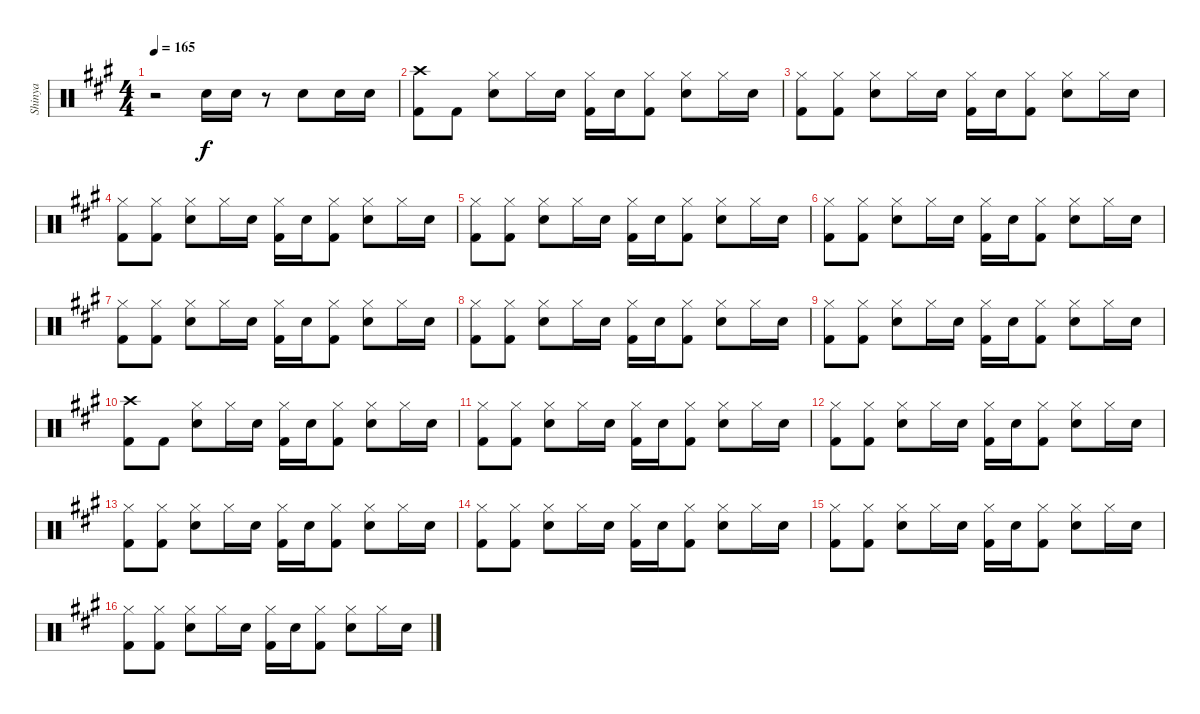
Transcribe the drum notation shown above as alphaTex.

\track ("Shinya" "Shinya") {instrument percussion}
\staff {score}
\articulation defaults
\ts (4 4)
\tempo 165
\clef neutral
\ks a
r.2{dy f} "Snare (hit) 2".16 "Snare (hit) 2".16 r.8 "Snare (hit) 2".8 "Snare (hit) 2".16 "Snare (hit) 2".16 |
("Crash high (hit)" "Kick (hit) 2").8 "Kick (hit) 2".8 ("Hi-Hat (closed)" "Snare (hit) 2").8 "Hi-Hat (closed)".16 "Snare (hit) 2".16 ("Hi-Hat (closed)" "Kick (hit) 2").16 "Snare (hit) 2".16 ("Hi-Hat (closed)" "Kick (hit) 2").8 ("Hi-Hat (closed)" "Snare (hit) 2").8 "Hi-Hat (closed)".16 "Snare (hit) 2".16 |
("Hi-Hat (closed)" "Kick (hit) 2").8 ("Hi-Hat (closed)" "Kick (hit) 2").8 ("Hi-Hat (closed)" "Snare (hit) 2").8 "Hi-Hat (closed)".16 "Snare (hit) 2".16 ("Hi-Hat (closed)" "Kick (hit) 2").16 "Snare (hit) 2".16 ("Hi-Hat (closed)" "Kick (hit) 2").8 ("Hi-Hat (closed)" "Snare (hit) 2").8 "Hi-Hat (closed)".16 "Snare (hit) 2".16 |
("Hi-Hat (closed)" "Kick (hit) 2").8 ("Hi-Hat (closed)" "Kick (hit) 2").8 ("Hi-Hat (closed)" "Snare (hit) 2").8 "Hi-Hat (closed)".16 "Snare (hit) 2".16 ("Hi-Hat (closed)" "Kick (hit) 2").16 "Snare (hit) 2".16 ("Hi-Hat (closed)" "Kick (hit) 2").8 ("Hi-Hat (closed)" "Snare (hit) 2").8 "Hi-Hat (closed)".16 "Snare (hit) 2".16 |
("Hi-Hat (closed)" "Kick (hit) 2").8 ("Hi-Hat (closed)" "Kick (hit) 2").8 ("Hi-Hat (closed)" "Snare (hit) 2").8 "Hi-Hat (closed)".16 "Snare (hit) 2".16 ("Hi-Hat (closed)" "Kick (hit) 2").16 "Snare (hit) 2".16 ("Hi-Hat (closed)" "Kick (hit) 2").8 ("Hi-Hat (closed)" "Snare (hit) 2").8 "Hi-Hat (closed)".16 "Snare (hit) 2".16 |
("Hi-Hat (closed)" "Kick (hit) 2").8 ("Hi-Hat (closed)" "Kick (hit) 2").8 ("Hi-Hat (closed)" "Snare (hit) 2").8 "Hi-Hat (closed)".16 "Snare (hit) 2".16 ("Hi-Hat (closed)" "Kick (hit) 2").16 "Snare (hit) 2".16 ("Hi-Hat (closed)" "Kick (hit) 2").8 ("Hi-Hat (closed)" "Snare (hit) 2").8 "Hi-Hat (closed)".16 "Snare (hit) 2".16 |
("Hi-Hat (closed)" "Kick (hit) 2").8 ("Hi-Hat (closed)" "Kick (hit) 2").8 ("Hi-Hat (closed)" "Snare (hit) 2").8 "Hi-Hat (closed)".16 "Snare (hit) 2".16 ("Hi-Hat (closed)" "Kick (hit) 2").16 "Snare (hit) 2".16 ("Hi-Hat (closed)" "Kick (hit) 2").8 ("Hi-Hat (closed)" "Snare (hit) 2").8 "Hi-Hat (closed)".16 "Snare (hit) 2".16 |
("Hi-Hat (closed)" "Kick (hit) 2").8 ("Hi-Hat (closed)" "Kick (hit) 2").8 ("Hi-Hat (closed)" "Snare (hit) 2").8 "Hi-Hat (closed)".16 "Snare (hit) 2".16 ("Hi-Hat (closed)" "Kick (hit) 2").16 "Snare (hit) 2".16 ("Hi-Hat (closed)" "Kick (hit) 2").8 ("Hi-Hat (closed)" "Snare (hit) 2").8 "Hi-Hat (closed)".16 "Snare (hit) 2".16 |
("Hi-Hat (closed)" "Kick (hit) 2").8 ("Hi-Hat (closed)" "Kick (hit) 2").8 ("Hi-Hat (closed)" "Snare (hit) 2").8 "Hi-Hat (closed)".16 "Snare (hit) 2".16 ("Hi-Hat (closed)" "Kick (hit) 2").16 "Snare (hit) 2".16 ("Hi-Hat (closed)" "Kick (hit) 2").8 ("Hi-Hat (closed)" "Snare (hit) 2").8 "Hi-Hat (closed)".16 "Snare (hit) 2".16 |
("Crash high (hit)" "Kick (hit) 2").8 "Kick (hit) 2".8 ("Hi-Hat (closed)" "Snare (hit) 2").8 "Hi-Hat (closed)".16 "Snare (hit) 2".16 ("Hi-Hat (closed)" "Kick (hit) 2").16 "Snare (hit) 2".16 ("Hi-Hat (closed)" "Kick (hit) 2").8 ("Hi-Hat (closed)" "Snare (hit) 2").8 "Hi-Hat (closed)".16 "Snare (hit) 2".16 |
("Hi-Hat (closed)" "Kick (hit) 2").8 ("Hi-Hat (closed)" "Kick (hit) 2").8 ("Hi-Hat (closed)" "Snare (hit) 2").8 "Hi-Hat (closed)".16 "Snare (hit) 2".16 ("Hi-Hat (closed)" "Kick (hit) 2").16 "Snare (hit) 2".16 ("Hi-Hat (closed)" "Kick (hit) 2").8 ("Hi-Hat (closed)" "Snare (hit) 2").8 "Hi-Hat (closed)".16 "Snare (hit) 2".16 |
("Hi-Hat (closed)" "Kick (hit) 2").8 ("Hi-Hat (closed)" "Kick (hit) 2").8 ("Hi-Hat (closed)" "Snare (hit) 2").8 "Hi-Hat (closed)".16 "Snare (hit) 2".16 ("Hi-Hat (closed)" "Kick (hit) 2").16 "Snare (hit) 2".16 ("Hi-Hat (closed)" "Kick (hit) 2").8 ("Hi-Hat (closed)" "Snare (hit) 2").8 "Hi-Hat (closed)".16 "Snare (hit) 2".16 |
("Hi-Hat (closed)" "Kick (hit) 2").8 ("Hi-Hat (closed)" "Kick (hit) 2").8 ("Hi-Hat (closed)" "Snare (hit) 2").8 "Hi-Hat (closed)".16 "Snare (hit) 2".16 ("Hi-Hat (closed)" "Kick (hit) 2").16 "Snare (hit) 2".16 ("Hi-Hat (closed)" "Kick (hit) 2").8 ("Hi-Hat (closed)" "Snare (hit) 2").8 "Hi-Hat (closed)".16 "Snare (hit) 2".16 |
("Hi-Hat (closed)" "Kick (hit) 2").8 ("Hi-Hat (closed)" "Kick (hit) 2").8 ("Hi-Hat (closed)" "Snare (hit) 2").8 "Hi-Hat (closed)".16 "Snare (hit) 2".16 ("Hi-Hat (closed)" "Kick (hit) 2").16 "Snare (hit) 2".16 ("Hi-Hat (closed)" "Kick (hit) 2").8 ("Hi-Hat (closed)" "Snare (hit) 2").8 "Hi-Hat (closed)".16 "Snare (hit) 2".16 |
("Hi-Hat (closed)" "Kick (hit) 2").8 ("Hi-Hat (closed)" "Kick (hit) 2").8 ("Hi-Hat (closed)" "Snare (hit) 2").8 "Hi-Hat (closed)".16 "Snare (hit) 2".16 ("Hi-Hat (closed)" "Kick (hit) 2").16 "Snare (hit) 2".16 ("Hi-Hat (closed)" "Kick (hit) 2").8 ("Hi-Hat (closed)" "Snare (hit) 2").8 "Hi-Hat (closed)".16 "Snare (hit) 2".16 |
("Hi-Hat (closed)" "Kick (hit) 2").8 ("Hi-Hat (closed)" "Kick (hit) 2").8 ("Hi-Hat (closed)" "Snare (hit) 2").8 "Hi-Hat (closed)".16 "Snare (hit) 2".16 ("Hi-Hat (closed)" "Kick (hit) 2").16 "Snare (hit) 2".16 ("Hi-Hat (closed)" "Kick (hit) 2").8 ("Hi-Hat (closed)" "Snare (hit) 2").8 "Hi-Hat (closed)".16 "Snare (hit) 2".16
